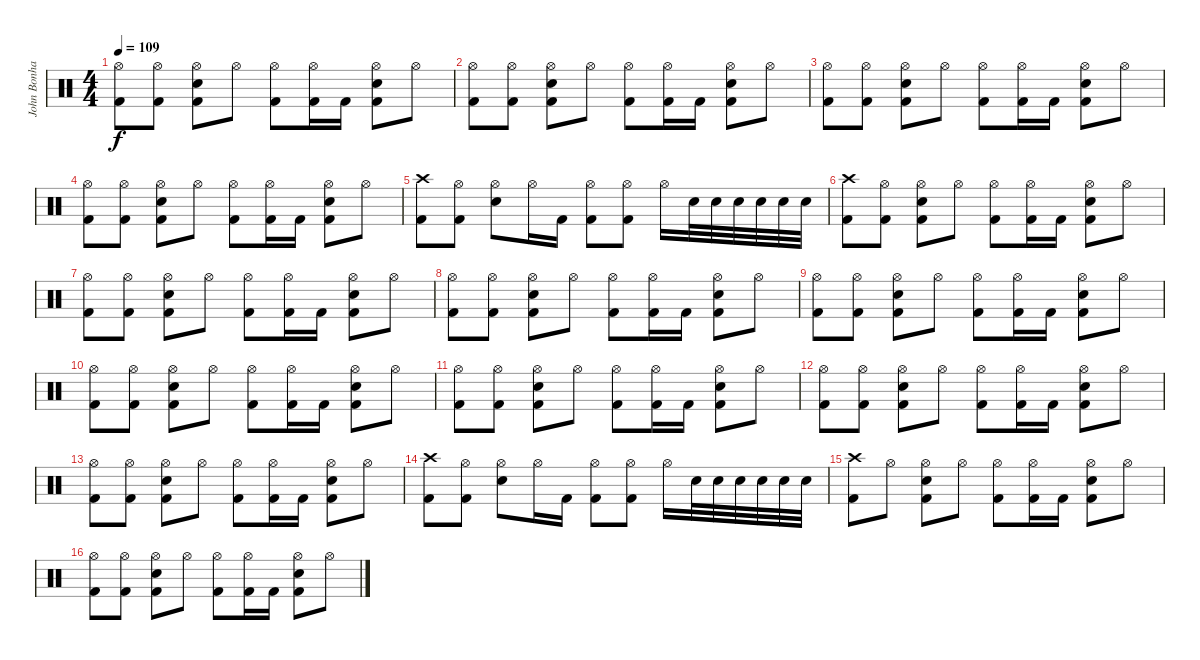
\track ("John Bonham" "John Bonha") {instrument percussion}
\staff {score}
\articulation defaults
\ts (4 4)
\tempo 109
\clef neutral
\ks c
("Kick (hit) 2" "Hi-Hat (open)").8{dy f} ("Kick (hit) 2" "Hi-Hat (open)").8 ("Kick (hit) 2" "Snare (hit) 2" "Hi-Hat (open)").8 "Hi-Hat (open)".8 ("Kick (hit) 2" "Hi-Hat (open)").8 ("Kick (hit) 2" "Hi-Hat (open)").16 "Kick (hit) 2".16 ("Kick (hit) 2" "Electric Snare (hit)" "Hi-Hat (open)").8 "Hi-Hat (open)".8 |
("Kick (hit) 2" "Hi-Hat (open)").8 ("Kick (hit) 2" "Hi-Hat (open)").8 ("Kick (hit) 2" "Snare (hit) 2" "Hi-Hat (open)").8 "Hi-Hat (open)".8 ("Kick (hit) 2" "Hi-Hat (open)").8 ("Kick (hit) 2" "Hi-Hat (open)").16 "Kick (hit) 2".16 ("Kick (hit) 2" "Electric Snare (hit)" "Hi-Hat (open)").8 "Hi-Hat (open)".8 |
("Kick (hit) 2" "Hi-Hat (open)").8 ("Kick (hit) 2" "Hi-Hat (open)").8 ("Kick (hit) 2" "Snare (hit) 2" "Hi-Hat (open)").8 "Hi-Hat (open)".8 ("Kick (hit) 2" "Hi-Hat (open)").8 ("Kick (hit) 2" "Hi-Hat (open)").16 "Kick (hit) 2".16 ("Kick (hit) 2" "Electric Snare (hit)" "Hi-Hat (open)").8 "Hi-Hat (open)".8 |
("Kick (hit) 2" "Hi-Hat (open)").8 ("Kick (hit) 2" "Hi-Hat (open)").8 ("Kick (hit) 2" "Snare (hit) 2" "Hi-Hat (open)").8 "Hi-Hat (open)".8 ("Kick (hit) 2" "Hi-Hat (open)").8 ("Kick (hit) 2" "Hi-Hat (open)").16 "Kick (hit) 2".16 ("Kick (hit) 2" "Electric Snare (hit)" "Hi-Hat (open)").8 "Hi-Hat (open)".8 |
("Kick (hit) 2" "Crash high (hit)").8 ("Kick (hit) 2" "Hi-Hat (open)").8 ("Snare (hit) 2" "Hi-Hat (open)").8 "Hi-Hat (open)".16 "Kick (hit) 2".16 ("Kick (hit) 2" "Hi-Hat (open)").8 ("Kick (hit) 2" "Hi-Hat (open)").8 "Hi-Hat (open)".16 "Snare (hit) 2".32 "Snare (hit) 2".32 "Snare (hit) 2".32 "Snare (hit) 2".32 "Snare (hit) 2".32 "Snare (hit) 2".32 |
("Kick (hit) 2" "Crash high (hit)").8 ("Kick (hit) 2" "Hi-Hat (open)").8 ("Kick (hit) 2" "Snare (hit) 2" "Hi-Hat (open)").8 "Hi-Hat (open)".8 ("Kick (hit) 2" "Hi-Hat (open)").8 ("Kick (hit) 2" "Hi-Hat (open)").16 "Kick (hit) 2".16 ("Kick (hit) 2" "Electric Snare (hit)" "Hi-Hat (open)").8 "Hi-Hat (open)".8 |
("Kick (hit) 2" "Hi-Hat (open)").8 ("Kick (hit) 2" "Hi-Hat (open)").8 ("Kick (hit) 2" "Snare (hit) 2" "Hi-Hat (open)").8 "Hi-Hat (open)".8 ("Kick (hit) 2" "Hi-Hat (open)").8 ("Kick (hit) 2" "Hi-Hat (open)").16 "Kick (hit) 2".16 ("Kick (hit) 2" "Electric Snare (hit)" "Hi-Hat (open)").8 "Hi-Hat (open)".8 |
("Kick (hit) 2" "Hi-Hat (open)").8 ("Kick (hit) 2" "Hi-Hat (open)").8 ("Kick (hit) 2" "Snare (hit) 2" "Hi-Hat (open)").8 "Hi-Hat (open)".8 ("Kick (hit) 2" "Hi-Hat (open)").8 ("Kick (hit) 2" "Hi-Hat (open)").16 "Kick (hit) 2".16 ("Kick (hit) 2" "Electric Snare (hit)" "Hi-Hat (open)").8 "Hi-Hat (open)".8 |
("Kick (hit) 2" "Hi-Hat (open)").8 ("Kick (hit) 2" "Hi-Hat (open)").8 ("Kick (hit) 2" "Snare (hit) 2" "Hi-Hat (open)").8 "Hi-Hat (open)".8 ("Kick (hit) 2" "Hi-Hat (open)").8 ("Kick (hit) 2" "Hi-Hat (open)").16 "Kick (hit) 2".16 ("Kick (hit) 2" "Electric Snare (hit)" "Hi-Hat (open)").8 "Hi-Hat (open)".8 |
("Kick (hit) 2" "Hi-Hat (open)").8 ("Kick (hit) 2" "Hi-Hat (open)").8 ("Kick (hit) 2" "Snare (hit) 2" "Hi-Hat (open)").8 "Hi-Hat (open)".8 ("Kick (hit) 2" "Hi-Hat (open)").8 ("Kick (hit) 2" "Hi-Hat (open)").16 "Kick (hit) 2".16 ("Kick (hit) 2" "Electric Snare (hit)" "Hi-Hat (open)").8 "Hi-Hat (open)".8 |
("Kick (hit) 2" "Hi-Hat (open)").8 ("Kick (hit) 2" "Hi-Hat (open)").8 ("Kick (hit) 2" "Snare (hit) 2" "Hi-Hat (open)").8 "Hi-Hat (open)".8 ("Kick (hit) 2" "Hi-Hat (open)").8 ("Kick (hit) 2" "Hi-Hat (open)").16 "Kick (hit) 2".16 ("Kick (hit) 2" "Electric Snare (hit)" "Hi-Hat (open)").8 "Hi-Hat (open)".8 |
("Kick (hit) 2" "Hi-Hat (open)").8 ("Kick (hit) 2" "Hi-Hat (open)").8 ("Kick (hit) 2" "Snare (hit) 2" "Hi-Hat (open)").8 "Hi-Hat (open)".8 ("Kick (hit) 2" "Hi-Hat (open)").8 ("Kick (hit) 2" "Hi-Hat (open)").16 "Kick (hit) 2".16 ("Kick (hit) 2" "Electric Snare (hit)" "Hi-Hat (open)").8 "Hi-Hat (open)".8 |
("Kick (hit) 2" "Hi-Hat (open)").8 ("Kick (hit) 2" "Hi-Hat (open)").8 ("Kick (hit) 2" "Snare (hit) 2" "Hi-Hat (open)").8 "Hi-Hat (open)".8 ("Kick (hit) 2" "Hi-Hat (open)").8 ("Kick (hit) 2" "Hi-Hat (open)").16 "Kick (hit) 2".16 ("Kick (hit) 2" "Electric Snare (hit)" "Hi-Hat (open)").8 "Hi-Hat (open)".8 |
("Kick (hit) 2" "Crash high (hit)").8 ("Kick (hit) 2" "Hi-Hat (open)").8 ("Snare (hit) 2" "Hi-Hat (open)").8 "Hi-Hat (open)".16 "Kick (hit) 2".16 ("Kick (hit) 2" "Hi-Hat (open)").8 ("Kick (hit) 2" "Hi-Hat (open)").8 "Hi-Hat (open)".16 "Snare (hit) 2".32 "Snare (hit) 2".32 "Snare (hit) 2".32 "Snare (hit) 2".32 "Snare (hit) 2".32 "Snare (hit) 2".32 |
("Kick (hit) 2" "Crash high (hit)").8 "Hi-Hat (open)".8 ("Kick (hit) 2" "Snare (hit) 2" "Hi-Hat (open)").8 "Hi-Hat (open)".8 ("Kick (hit) 2" "Hi-Hat (open)").8 ("Kick (hit) 2" "Hi-Hat (open)").16 "Kick (hit) 2".16 ("Kick (hit) 2" "Electric Snare (hit)" "Hi-Hat (open)").8 "Hi-Hat (open)".8 |
("Kick (hit) 2" "Hi-Hat (open)").8 ("Kick (hit) 2" "Hi-Hat (open)").8 ("Kick (hit) 2" "Snare (hit) 2" "Hi-Hat (open)").8 "Hi-Hat (open)".8 ("Kick (hit) 2" "Hi-Hat (open)").8 ("Kick (hit) 2" "Hi-Hat (open)").16 "Kick (hit) 2".16 ("Kick (hit) 2" "Electric Snare (hit)" "Hi-Hat (open)").8 "Hi-Hat (open)".8
